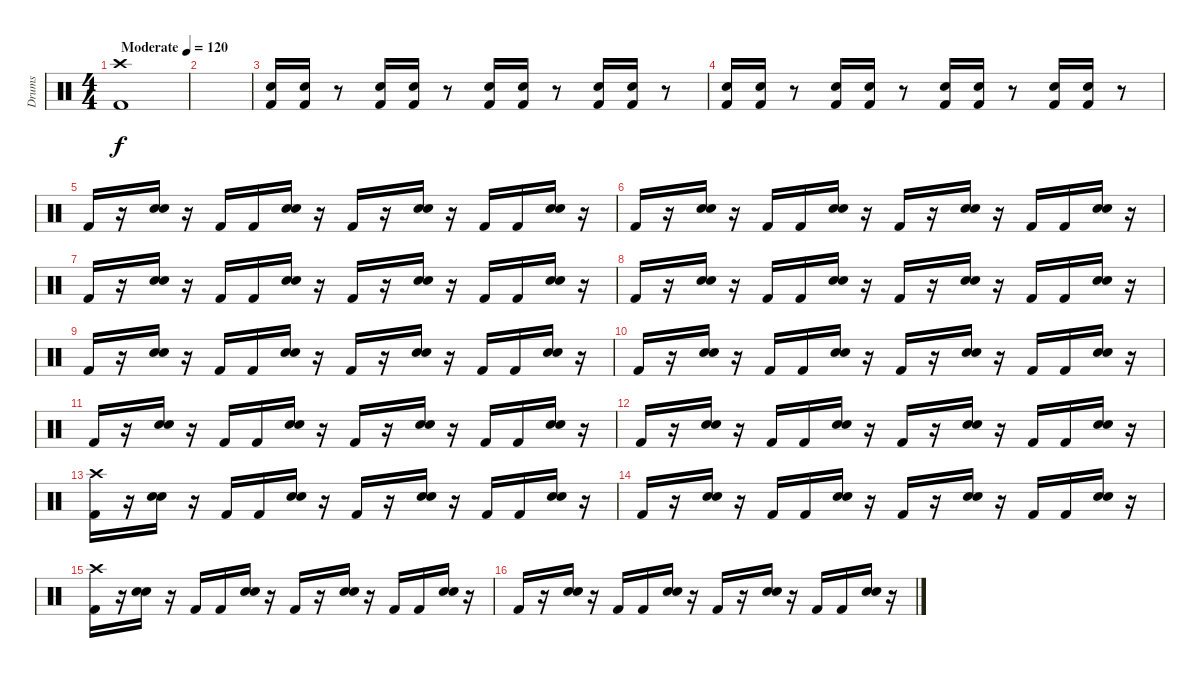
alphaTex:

\track ("Drums" "Drums") {instrument percussion}
\staff {score}
\articulation defaults
\ts (4 4)
\tempo (120 "Moderate")
\clef neutral
\ks c
("Crash high (hit)" "Kick (hit) 2").1{dy f} |
|
("Snare (hit) 2" "Kick (hit) 2").16 ("Snare (hit) 2" "Kick (hit) 2").16 r.8 ("Snare (hit) 2" "Kick (hit) 2").16 ("Snare (hit) 2" "Kick (hit) 2").16 r.8 ("Snare (hit) 2" "Kick (hit) 2").16 ("Snare (hit) 2" "Kick (hit) 2").16 r.8 ("Snare (hit) 2" "Kick (hit) 2").16 ("Snare (hit) 2" "Kick (hit) 2").16 r.8 |
("Snare (hit) 2" "Kick (hit) 2").16 ("Snare (hit) 2" "Kick (hit) 2").16 r.8 ("Snare (hit) 2" "Kick (hit) 2").16 ("Snare (hit) 2" "Kick (hit) 2").16 r.8 ("Snare (hit) 2" "Kick (hit) 2").16 ("Snare (hit) 2" "Kick (hit) 2").16 r.8 ("Snare (hit) 2" "Kick (hit) 2").16 ("Snare (hit) 2" "Kick (hit) 2").16 r.8 |
"Kick (hit) 2".16 r.16 ("Snare (hit) 2" "Snare (hit) 2").16 r.16 "Kick (hit) 2".16 "Kick (hit) 2".16 ("Snare (hit) 2" "Snare (hit) 2").16 r.16 "Kick (hit) 2".16 r.16 ("Snare (hit) 2" "Snare (hit) 2").16 r.16 "Kick (hit) 2".16 "Kick (hit) 2".16 ("Snare (hit) 2" "Snare (hit) 2").16 r.16 |
"Kick (hit) 2".16 r.16 ("Snare (hit) 2" "Snare (hit) 2").16 r.16 "Kick (hit) 2".16 "Kick (hit) 2".16 ("Snare (hit) 2" "Snare (hit) 2").16 r.16 "Kick (hit) 2".16 r.16 ("Snare (hit) 2" "Snare (hit) 2").16 r.16 "Kick (hit) 2".16 "Kick (hit) 2".16 ("Snare (hit) 2" "Snare (hit) 2").16 r.16 |
"Kick (hit) 2".16 r.16 ("Snare (hit) 2" "Snare (hit) 2").16 r.16 "Kick (hit) 2".16 "Kick (hit) 2".16 ("Snare (hit) 2" "Snare (hit) 2").16 r.16 "Kick (hit) 2".16 r.16 ("Snare (hit) 2" "Snare (hit) 2").16 r.16 "Kick (hit) 2".16 "Kick (hit) 2".16 ("Snare (hit) 2" "Snare (hit) 2").16 r.16 |
"Kick (hit) 2".16 r.16 ("Snare (hit) 2" "Snare (hit) 2").16 r.16 "Kick (hit) 2".16 "Kick (hit) 2".16 ("Snare (hit) 2" "Snare (hit) 2").16 r.16 "Kick (hit) 2".16 r.16 ("Snare (hit) 2" "Snare (hit) 2").16 r.16 "Kick (hit) 2".16 "Kick (hit) 2".16 ("Snare (hit) 2" "Snare (hit) 2").16 r.16 |
"Kick (hit) 2".16 r.16 ("Snare (hit) 2" "Snare (hit) 2").16 r.16 "Kick (hit) 2".16 "Kick (hit) 2".16 ("Snare (hit) 2" "Snare (hit) 2").16 r.16 "Kick (hit) 2".16 r.16 ("Snare (hit) 2" "Snare (hit) 2").16 r.16 "Kick (hit) 2".16 "Kick (hit) 2".16 ("Snare (hit) 2" "Snare (hit) 2").16 r.16 |
"Kick (hit) 2".16 r.16 ("Snare (hit) 2" "Snare (hit) 2").16 r.16 "Kick (hit) 2".16 "Kick (hit) 2".16 ("Snare (hit) 2" "Snare (hit) 2").16 r.16 "Kick (hit) 2".16 r.16 ("Snare (hit) 2" "Snare (hit) 2").16 r.16 "Kick (hit) 2".16 "Kick (hit) 2".16 ("Snare (hit) 2" "Snare (hit) 2").16 r.16 |
"Kick (hit) 2".16 r.16 ("Snare (hit) 2" "Snare (hit) 2").16 r.16 "Kick (hit) 2".16 "Kick (hit) 2".16 ("Snare (hit) 2" "Snare (hit) 2").16 r.16 "Kick (hit) 2".16 r.16 ("Snare (hit) 2" "Snare (hit) 2").16 r.16 "Kick (hit) 2".16 "Kick (hit) 2".16 ("Snare (hit) 2" "Snare (hit) 2").16 r.16 |
"Kick (hit) 2".16 r.16 ("Snare (hit) 2" "Snare (hit) 2").16 r.16 "Kick (hit) 2".16 "Kick (hit) 2".16 ("Snare (hit) 2" "Snare (hit) 2").16 r.16 "Kick (hit) 2".16 r.16 ("Snare (hit) 2" "Snare (hit) 2").16 r.16 "Kick (hit) 2".16 "Kick (hit) 2".16 ("Snare (hit) 2" "Snare (hit) 2").16 r.16 |
("Crash high (hit)" "Kick (hit) 2").16 r.16 ("Snare (hit) 2" "Snare (hit) 2").16 r.16 "Kick (hit) 2".16 "Kick (hit) 2".16 ("Snare (hit) 2" "Snare (hit) 2").16 r.16 "Kick (hit) 2".16 r.16 ("Snare (hit) 2" "Snare (hit) 2").16 r.16 "Kick (hit) 2".16 "Kick (hit) 2".16 ("Snare (hit) 2" "Snare (hit) 2").16 r.16 |
"Kick (hit) 2".16 r.16 ("Snare (hit) 2" "Snare (hit) 2").16 r.16 "Kick (hit) 2".16 "Kick (hit) 2".16 ("Snare (hit) 2" "Snare (hit) 2").16 r.16 "Kick (hit) 2".16 r.16 ("Snare (hit) 2" "Snare (hit) 2").16 r.16 "Kick (hit) 2".16 "Kick (hit) 2".16 ("Snare (hit) 2" "Snare (hit) 2").16 r.16 |
("Crash high (hit)" "Kick (hit) 2").16 r.16 ("Snare (hit) 2" "Snare (hit) 2").16 r.16 "Kick (hit) 2".16 "Kick (hit) 2".16 ("Snare (hit) 2" "Snare (hit) 2").16 r.16 "Kick (hit) 2".16 r.16 ("Snare (hit) 2" "Snare (hit) 2").16 r.16 "Kick (hit) 2".16 "Kick (hit) 2".16 ("Snare (hit) 2" "Snare (hit) 2").16 r.16 |
"Kick (hit) 2".16 r.16 ("Snare (hit) 2" "Snare (hit) 2").16 r.16 "Kick (hit) 2".16 "Kick (hit) 2".16 ("Snare (hit) 2" "Snare (hit) 2").16 r.16 "Kick (hit) 2".16 r.16 ("Snare (hit) 2" "Snare (hit) 2").16 r.16 "Kick (hit) 2".16 "Kick (hit) 2".16 ("Snare (hit) 2" "Snare (hit) 2").16 r.16
